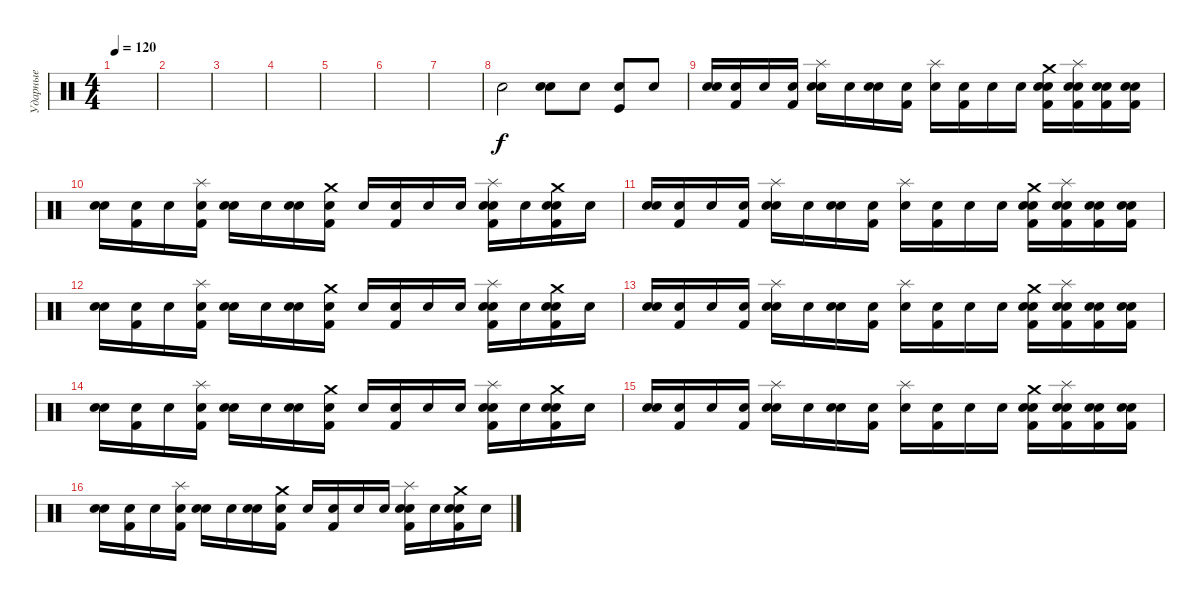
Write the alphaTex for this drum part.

\track ("Ударные" "Ударные") {instrument percussion}
\staff {score}
\articulation defaults
\ts (4 4)
\tempo 120
\clef neutral
\ks c
|
|
|
|
|
|
|
"Snare (hit)".2 ("Snare (hit)" "Electric Snare (hit)").8 "Electric Snare (hit)".8 ("Electric Snare (hit)" "Kick (hit)").8 "Electric Snare (hit)".8 |
("Snare (hit)" "Electric Snare (hit)").16 ("Snare (hit)" "Kick (hit) 2").16 "Snare (hit)".16 ("Snare (hit)" "Kick (hit) 2").16 ("Splash (hit)" "Snare (hit)" "Electric Snare (hit)").16 "Snare (hit)".16 ("Snare (hit)" "Electric Snare (hit)").16 ("Snare (hit)" "Kick (hit) 2").16 ("Splash (hit)" "Snare (hit)").16 ("Snare (hit)" "Kick (hit) 2").16 "Snare (hit)".16 "Snare (hit)".16 ("Crash medium (hit)" "Snare (hit)" "Electric Snare (hit)" "Kick (hit) 2").16 ("Splash (hit)" "Snare (hit)" "Electric Snare (hit)" "Kick (hit) 2").16 ("Snare (hit)" "Electric Snare (hit)" "Kick (hit) 2").16 ("Snare (hit)" "Electric Snare (hit)" "Kick (hit) 2").16 |
("Snare (hit)" "Electric Snare (hit)").16 ("Snare (hit)" "Kick (hit) 2").16 "Snare (hit)".16 ("Splash (hit)" "Snare (hit)" "Kick (hit) 2").16 ("Snare (hit)" "Electric Snare (hit)").16 "Snare (hit)".16 ("Snare (hit)" "Electric Snare (hit)").16 ("Crash medium (hit)" "Snare (hit)" "Kick (hit) 2").16 "Snare (hit)".16 ("Snare (hit)" "Kick (hit) 2").16 "Snare (hit)".16 "Snare (hit)".16 ("Splash (hit)" "Snare (hit)" "Electric Snare (hit)" "Kick (hit) 2").16 "Snare (hit)".16 ("Crash medium (hit)" "Snare (hit)" "Electric Snare (hit)" "Kick (hit) 2").16 "Snare (hit)".16 |
("Snare (hit)" "Electric Snare (hit)").16 ("Snare (hit)" "Kick (hit) 2").16 "Snare (hit)".16 ("Snare (hit)" "Kick (hit) 2").16 ("Splash (hit)" "Snare (hit)" "Electric Snare (hit)").16 "Snare (hit)".16 ("Snare (hit)" "Electric Snare (hit)").16 ("Snare (hit)" "Kick (hit) 2").16 ("Splash (hit)" "Snare (hit)").16 ("Snare (hit)" "Kick (hit) 2").16 "Snare (hit)".16 "Snare (hit)".16 ("Crash medium (hit)" "Snare (hit)" "Electric Snare (hit)" "Kick (hit) 2").16 ("Splash (hit)" "Snare (hit)" "Electric Snare (hit)" "Kick (hit) 2").16 ("Snare (hit)" "Electric Snare (hit)" "Kick (hit) 2").16 ("Snare (hit)" "Electric Snare (hit)" "Kick (hit) 2").16 |
("Snare (hit)" "Electric Snare (hit)").16 ("Snare (hit)" "Kick (hit) 2").16 "Snare (hit)".16 ("Splash (hit)" "Snare (hit)" "Kick (hit) 2").16 ("Snare (hit)" "Electric Snare (hit)").16 "Snare (hit)".16 ("Snare (hit)" "Electric Snare (hit)").16 ("Crash medium (hit)" "Snare (hit)" "Kick (hit) 2").16 "Snare (hit)".16 ("Snare (hit)" "Kick (hit) 2").16 "Snare (hit)".16 "Snare (hit)".16 ("Splash (hit)" "Snare (hit)" "Electric Snare (hit)" "Kick (hit) 2").16 "Snare (hit)".16 ("Crash medium (hit)" "Snare (hit)" "Electric Snare (hit)" "Kick (hit) 2").16 "Snare (hit)".16 |
("Snare (hit)" "Electric Snare (hit)").16 ("Snare (hit)" "Kick (hit) 2").16 "Snare (hit)".16 ("Snare (hit)" "Kick (hit) 2").16 ("Splash (hit)" "Snare (hit)" "Electric Snare (hit)").16 "Snare (hit)".16 ("Snare (hit)" "Electric Snare (hit)").16 ("Snare (hit)" "Kick (hit) 2").16 ("Splash (hit)" "Snare (hit)").16 ("Snare (hit)" "Kick (hit) 2").16 "Snare (hit)".16 "Snare (hit)".16 ("Crash medium (hit)" "Snare (hit)" "Electric Snare (hit)" "Kick (hit) 2").16 ("Splash (hit)" "Snare (hit)" "Electric Snare (hit)" "Kick (hit) 2").16 ("Snare (hit)" "Electric Snare (hit)" "Kick (hit) 2").16 ("Snare (hit)" "Electric Snare (hit)" "Kick (hit) 2").16 |
("Snare (hit)" "Electric Snare (hit)").16 ("Snare (hit)" "Kick (hit) 2").16 "Snare (hit)".16 ("Splash (hit)" "Snare (hit)" "Kick (hit) 2").16 ("Snare (hit)" "Electric Snare (hit)").16 "Snare (hit)".16 ("Snare (hit)" "Electric Snare (hit)").16 ("Crash medium (hit)" "Snare (hit)" "Kick (hit) 2").16 "Snare (hit)".16 ("Snare (hit)" "Kick (hit) 2").16 "Snare (hit)".16 "Snare (hit)".16 ("Splash (hit)" "Snare (hit)" "Electric Snare (hit)" "Kick (hit) 2").16 "Snare (hit)".16 ("Crash medium (hit)" "Snare (hit)" "Electric Snare (hit)" "Kick (hit) 2").16 "Snare (hit)".16 |
("Snare (hit)" "Electric Snare (hit)").16 ("Snare (hit)" "Kick (hit) 2").16 "Snare (hit)".16 ("Snare (hit)" "Kick (hit) 2").16 ("Splash (hit)" "Snare (hit)" "Electric Snare (hit)").16 "Snare (hit)".16 ("Snare (hit)" "Electric Snare (hit)").16 ("Snare (hit)" "Kick (hit) 2").16 ("Splash (hit)" "Snare (hit)").16 ("Snare (hit)" "Kick (hit) 2").16 "Snare (hit)".16 "Snare (hit)".16 ("Crash medium (hit)" "Snare (hit)" "Electric Snare (hit)" "Kick (hit) 2").16 ("Splash (hit)" "Snare (hit)" "Electric Snare (hit)" "Kick (hit) 2").16 ("Snare (hit)" "Electric Snare (hit)" "Kick (hit) 2").16 ("Snare (hit)" "Electric Snare (hit)" "Kick (hit) 2").16 |
("Snare (hit)" "Electric Snare (hit)").16 ("Snare (hit)" "Kick (hit) 2").16 "Snare (hit)".16 ("Splash (hit)" "Snare (hit)" "Kick (hit) 2").16 ("Snare (hit)" "Electric Snare (hit)").16 "Snare (hit)".16 ("Snare (hit)" "Electric Snare (hit)").16 ("Crash medium (hit)" "Snare (hit)" "Kick (hit) 2").16 "Snare (hit)".16 ("Snare (hit)" "Kick (hit) 2").16 "Snare (hit)".16 "Snare (hit)".16 ("Splash (hit)" "Snare (hit)" "Electric Snare (hit)" "Kick (hit) 2").16 "Snare (hit)".16 ("Crash medium (hit)" "Snare (hit)" "Electric Snare (hit)" "Kick (hit) 2").16 "Snare (hit)".16
